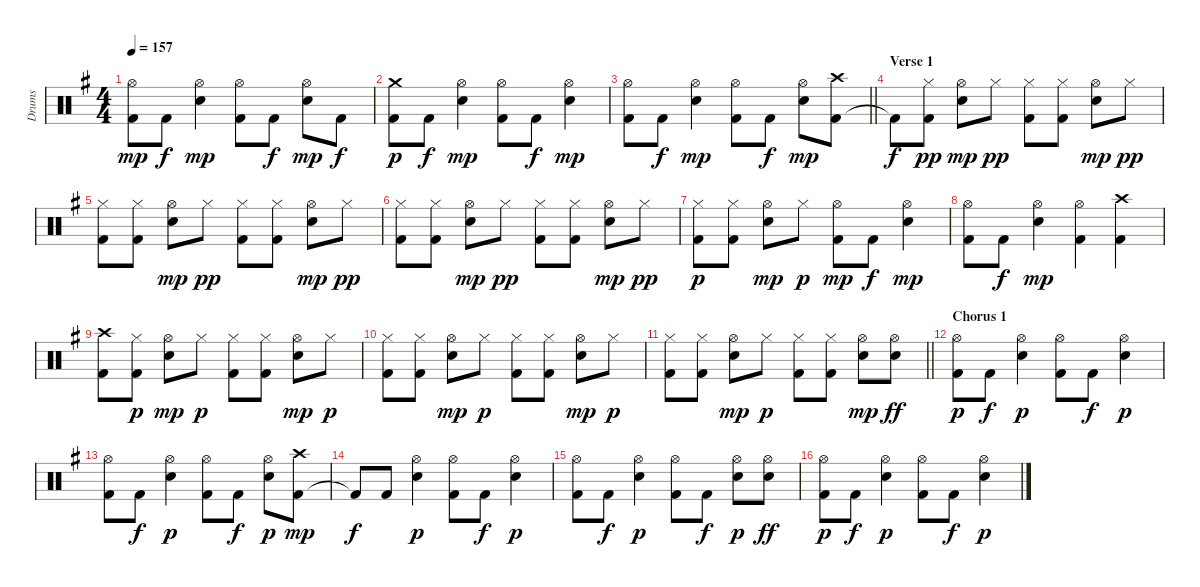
\track ("Drums" "Drums") {instrument percussion}
\staff {score}
\articulation defaults
\ts (4 4)
\tempo 157
\clef neutral
\ks g
("Kick (hit) 2" "Hi-Hat (open)").8{dy mp} "Kick (hit) 2".8{dy f} ("Electric Snare (hit)" "Hi-Hat (open)").4{dy mp} ("Kick (hit) 2" "Hi-Hat (open)").8 "Kick (hit) 2".8{dy f} ("Electric Snare (hit)" "Hi-Hat (open)").8{dy mp} "Kick (hit) 2".8{dy f} |
("Kick (hit) 2" "Crash medium (hit)").8{dy p} "Kick (hit) 2".8{dy f} ("Electric Snare (hit)" "Hi-Hat (open)").4{dy mp} ("Kick (hit) 2" "Hi-Hat (open)").8 "Kick (hit) 2".8{dy f} ("Electric Snare (hit)" "Hi-Hat (open)").4{dy mp} |
\barLineRight lightlight
("Kick (hit) 2" "Hi-Hat (open)").8 "Kick (hit) 2".8{dy f} ("Electric Snare (hit)" "Hi-Hat (open)").4{dy mp} ("Kick (hit) 2" "Hi-Hat (open)").8 "Kick (hit) 2".8{dy f} ("Electric Snare (hit)" "Hi-Hat (open)").8{dy mp} ("Kick (hit) 2" "Crash high (hit)").8 |
\section ("" "Verse 1")
"Kick (hit) 2"{t}.8{dy f} ("Kick (hit) 2" "Hi-Hat (closed)").8{dy pp} ("Electric Snare (hit)" "Hi-Hat (open)").8{dy mp} "Hi-Hat (closed)".8{dy pp} ("Kick (hit) 2" "Hi-Hat (closed)").8 ("Kick (hit) 2" "Hi-Hat (closed)").8 ("Electric Snare (hit)" "Hi-Hat (open)").8{dy mp} "Hi-Hat (closed)".8{dy pp} |
("Kick (hit) 2" "Hi-Hat (closed)").8 ("Kick (hit) 2" "Hi-Hat (closed)").8 ("Electric Snare (hit)" "Hi-Hat (open)").8{dy mp} "Hi-Hat (closed)".8{dy pp} ("Kick (hit) 2" "Hi-Hat (closed)").8 ("Kick (hit) 2" "Hi-Hat (closed)").8 ("Electric Snare (hit)" "Hi-Hat (open)").8{dy mp} "Hi-Hat (closed)".8{dy pp} |
("Kick (hit) 2" "Hi-Hat (closed)").8 ("Kick (hit) 2" "Hi-Hat (closed)").8 ("Electric Snare (hit)" "Hi-Hat (open)").8{dy mp} "Hi-Hat (closed)".8{dy pp} ("Kick (hit) 2" "Hi-Hat (closed)").8 ("Kick (hit) 2" "Hi-Hat (closed)").8 ("Electric Snare (hit)" "Hi-Hat (open)").8{dy mp} "Hi-Hat (closed)".8{dy pp} |
("Kick (hit) 2" "Hi-Hat (closed)").8{dy p} ("Kick (hit) 2" "Hi-Hat (closed)").8 ("Electric Snare (hit)" "Hi-Hat (open)").8{dy mp} "Hi-Hat (closed)".8{dy p} ("Kick (hit) 2" "Hi-Hat (open)").8{dy mp} "Kick (hit) 2".8{dy f} ("Electric Snare (hit)" "Hi-Hat (open)").4{dy mp} |
("Kick (hit) 2" "Hi-Hat (open)").8 "Kick (hit) 2".8{dy f} ("Electric Snare (hit)" "Hi-Hat (open)").4{dy mp} ("Kick (hit) 2" "Hi-Hat (open)").4 ("Kick (hit) 2" "Crash high (hit)").4 |
("Kick (hit) 2" "Crash high (hit)").8 ("Kick (hit) 2" "Hi-Hat (closed)").8{dy p} ("Electric Snare (hit)" "Hi-Hat (open)").8{dy mp} "Hi-Hat (closed)".8{dy p} ("Kick (hit) 2" "Hi-Hat (closed)").8 ("Kick (hit) 2" "Hi-Hat (closed)").8 ("Electric Snare (hit)" "Hi-Hat (open)").8{dy mp} "Hi-Hat (closed)".8{dy p} |
("Kick (hit) 2" "Hi-Hat (closed)").8 ("Kick (hit) 2" "Hi-Hat (closed)").8 ("Electric Snare (hit)" "Hi-Hat (open)").8{dy mp} "Hi-Hat (closed)".8{dy p} ("Kick (hit) 2" "Hi-Hat (closed)").8 ("Kick (hit) 2" "Hi-Hat (closed)").8 ("Electric Snare (hit)" "Hi-Hat (open)").8{dy mp} "Hi-Hat (closed)".8{dy p} |
\barLineRight lightlight
("Kick (hit) 2" "Hi-Hat (closed)").8 ("Kick (hit) 2" "Hi-Hat (closed)").8 ("Electric Snare (hit)" "Hi-Hat (open)").8{dy mp} "Hi-Hat (closed)".8{dy p} ("Kick (hit) 2" "Hi-Hat (closed)").8 ("Kick (hit) 2" "Hi-Hat (closed)").8 ("Electric Snare (hit)" "Hi-Hat (open)").8{dy mp} ("Hi-Hat (open)" "Electric Snare (hit)").8{dy ff} |
\section ("" "Chorus 1")
("Kick (hit) 2" "Hi-Hat (open)").8{dy p} "Kick (hit) 2".8{dy f} ("Electric Snare (hit)" "Hi-Hat (open)").4{dy p} ("Kick (hit) 2" "Hi-Hat (open)").8 "Kick (hit) 2".8{dy f} ("Electric Snare (hit)" "Hi-Hat (open)").4{dy p} |
("Kick (hit) 2" "Hi-Hat (open)").8 "Kick (hit) 2".8{dy f} ("Electric Snare (hit)" "Hi-Hat (open)").4{dy p} ("Kick (hit) 2" "Hi-Hat (open)").8 "Kick (hit) 2".8{dy f} ("Electric Snare (hit)" "Hi-Hat (open)").8{dy p} ("Kick (hit) 2" "Crash high (hit)").8{dy mp} |
"Kick (hit) 2"{t}.8{dy f} "Kick (hit) 2".8 ("Electric Snare (hit)" "Hi-Hat (open)").4{dy p} ("Kick (hit) 2" "Hi-Hat (open)").8 "Kick (hit) 2".8{dy f} ("Electric Snare (hit)" "Hi-Hat (open)").4{dy p} |
("Kick (hit) 2" "Hi-Hat (open)").8 "Kick (hit) 2".8{dy f} ("Electric Snare (hit)" "Hi-Hat (open)").4{dy p} ("Kick (hit) 2" "Hi-Hat (open)").8 "Kick (hit) 2".8{dy f} ("Electric Snare (hit)" "Hi-Hat (open)").8{dy p} ("Hi-Hat (open)" "Electric Snare (hit)").8{dy ff} |
("Kick (hit) 2" "Hi-Hat (open)").8{dy p} "Kick (hit) 2".8{dy f} ("Electric Snare (hit)" "Hi-Hat (open)").4{dy p} ("Kick (hit) 2" "Hi-Hat (open)").8 "Kick (hit) 2".8{dy f} ("Electric Snare (hit)" "Hi-Hat (open)").4{dy p}
